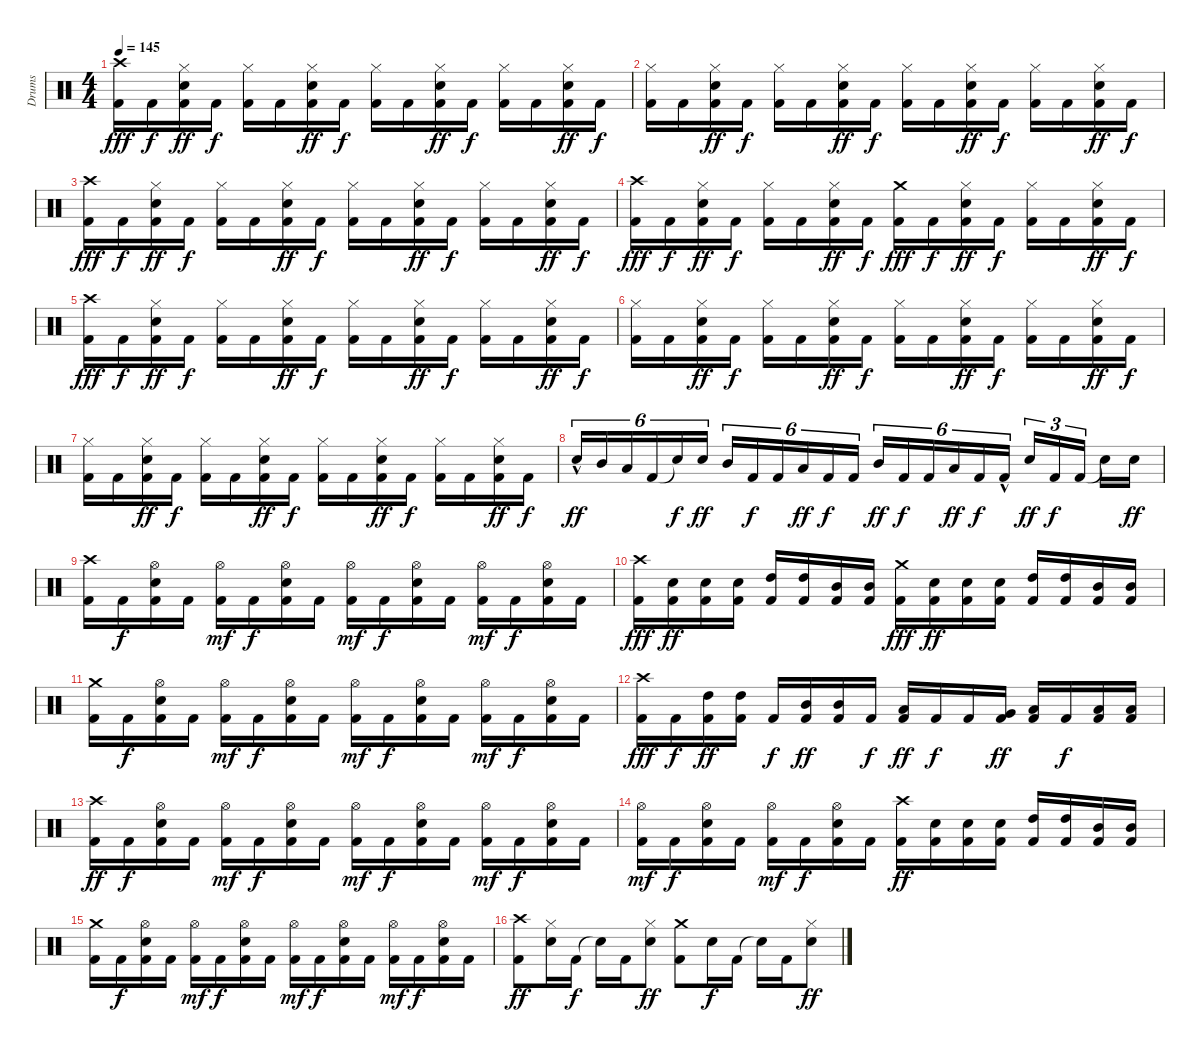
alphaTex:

\track ("Drums" "Drums") {instrument percussion}
\staff {score}
\articulation defaults
\ts (4 4)
\tempo 145
\clef neutral
\ks c
("Crash high (hit)" "Kick (hit) 2").16{dy fff} "Kick (hit) 2".16{dy f} ("Snare (hit) 2" "Hi-Hat (closed)" "Kick (hit) 2").16{dy ff} "Kick (hit) 2".16{dy f} ("Hi-Hat (closed)" "Kick (hit) 2").16 "Kick (hit) 2".16 ("Snare (hit) 2" "Hi-Hat (closed)" "Kick (hit) 2").16{dy ff} "Kick (hit) 2".16{dy f} ("Hi-Hat (closed)" "Kick (hit) 2").16 "Kick (hit) 2".16 ("Snare (hit) 2" "Hi-Hat (closed)" "Kick (hit) 2").16{dy ff} "Kick (hit) 2".16{dy f} ("Hi-Hat (closed)" "Kick (hit) 2").16 "Kick (hit) 2".16 ("Snare (hit) 2" "Hi-Hat (closed)" "Kick (hit) 2").16{dy ff} "Kick (hit) 2".16{dy f} |
("Hi-Hat (closed)" "Kick (hit) 2").16 "Kick (hit) 2".16 ("Snare (hit) 2" "Hi-Hat (closed)" "Kick (hit) 2").16{dy ff} "Kick (hit) 2".16{dy f} ("Hi-Hat (closed)" "Kick (hit) 2").16 "Kick (hit) 2".16 ("Snare (hit) 2" "Hi-Hat (closed)" "Kick (hit) 2").16{dy ff} "Kick (hit) 2".16{dy f} ("Hi-Hat (closed)" "Kick (hit) 2").16 "Kick (hit) 2".16 ("Snare (hit) 2" "Hi-Hat (closed)" "Kick (hit) 2").16{dy ff} "Kick (hit) 2".16{dy f} ("Hi-Hat (closed)" "Kick (hit) 2").16 "Kick (hit) 2".16 ("Snare (hit) 2" "Hi-Hat (closed)" "Kick (hit) 2").16{dy ff} "Kick (hit) 2".16{dy f} |
("Crash high (hit)" "Kick (hit) 2").16{dy fff} "Kick (hit) 2".16{dy f} ("Snare (hit) 2" "Hi-Hat (closed)" "Kick (hit) 2").16{dy ff} "Kick (hit) 2".16{dy f} ("Hi-Hat (closed)" "Kick (hit) 2").16 "Kick (hit) 2".16 ("Snare (hit) 2" "Hi-Hat (closed)" "Kick (hit) 2").16{dy ff} "Kick (hit) 2".16{dy f} ("Hi-Hat (closed)" "Kick (hit) 2").16 "Kick (hit) 2".16 ("Snare (hit) 2" "Hi-Hat (closed)" "Kick (hit) 2").16{dy ff} "Kick (hit) 2".16{dy f} ("Hi-Hat (closed)" "Kick (hit) 2").16 "Kick (hit) 2".16 ("Snare (hit) 2" "Hi-Hat (closed)" "Kick (hit) 2").16{dy ff} "Kick (hit) 2".16{dy f} |
("Crash high (hit)" "Kick (hit) 2").16{dy fff} "Kick (hit) 2".16{dy f} ("Snare (hit) 2" "Hi-Hat (closed)" "Kick (hit) 2").16{dy ff} "Kick (hit) 2".16{dy f} ("Hi-Hat (closed)" "Kick (hit) 2").16 "Kick (hit) 2".16 ("Snare (hit) 2" "Hi-Hat (closed)" "Kick (hit) 2").16{dy ff} "Kick (hit) 2".16{dy f} ("Crash medium (hit)" "Kick (hit) 2").16{dy fff} "Kick (hit) 2".16{dy f} ("Snare (hit) 2" "Hi-Hat (closed)" "Kick (hit) 2").16{dy ff} "Kick (hit) 2".16{dy f} ("Hi-Hat (closed)" "Kick (hit) 2").16 "Kick (hit) 2".16 ("Snare (hit) 2" "Hi-Hat (closed)" "Kick (hit) 2").16{dy ff} "Kick (hit) 2".16{dy f} |
("Crash high (hit)" "Kick (hit) 2").16{dy fff} "Kick (hit) 2".16{dy f} ("Snare (hit) 2" "Hi-Hat (closed)" "Kick (hit) 2").16{dy ff} "Kick (hit) 2".16{dy f} ("Hi-Hat (closed)" "Kick (hit) 2").16 "Kick (hit) 2".16 ("Snare (hit) 2" "Hi-Hat (closed)" "Kick (hit) 2").16{dy ff} "Kick (hit) 2".16{dy f} ("Hi-Hat (closed)" "Kick (hit) 2").16 "Kick (hit) 2".16 ("Snare (hit) 2" "Hi-Hat (closed)" "Kick (hit) 2").16{dy ff} "Kick (hit) 2".16{dy f} ("Hi-Hat (closed)" "Kick (hit) 2").16 "Kick (hit) 2".16 ("Snare (hit) 2" "Hi-Hat (closed)" "Kick (hit) 2").16{dy ff} "Kick (hit) 2".16{dy f} |
("Hi-Hat (closed)" "Kick (hit) 2").16 "Kick (hit) 2".16 ("Snare (hit) 2" "Hi-Hat (closed)" "Kick (hit) 2").16{dy ff} "Kick (hit) 2".16{dy f} ("Hi-Hat (closed)" "Kick (hit) 2").16 "Kick (hit) 2".16 ("Snare (hit) 2" "Hi-Hat (closed)" "Kick (hit) 2").16{dy ff} "Kick (hit) 2".16{dy f} ("Hi-Hat (closed)" "Kick (hit) 2").16 "Kick (hit) 2".16 ("Snare (hit) 2" "Hi-Hat (closed)" "Kick (hit) 2").16{dy ff} "Kick (hit) 2".16{dy f} ("Hi-Hat (closed)" "Kick (hit) 2").16 "Kick (hit) 2".16 ("Snare (hit) 2" "Hi-Hat (closed)" "Kick (hit) 2").16{dy ff} "Kick (hit) 2".16{dy f} |
("Hi-Hat (closed)" "Kick (hit) 2").16 "Kick (hit) 2".16 ("Snare (hit) 2" "Hi-Hat (closed)" "Kick (hit) 2").16{dy ff} "Kick (hit) 2".16{dy f} ("Hi-Hat (closed)" "Kick (hit) 2").16 "Kick (hit) 2".16 ("Snare (hit) 2" "Hi-Hat (closed)" "Kick (hit) 2").16{dy ff} "Kick (hit) 2".16{dy f} ("Hi-Hat (closed)" "Kick (hit) 2").16 "Kick (hit) 2".16 ("Snare (hit) 2" "Hi-Hat (closed)" "Kick (hit) 2").16{dy ff} "Kick (hit) 2".16{dy f} ("Hi-Hat (closed)" "Kick (hit) 2").16 "Kick (hit) 2".16 ("Snare (hit) 2" "Hi-Hat (closed)" "Kick (hit) 2").16{dy ff} "Kick (hit) 2".16{dy f} |
"Snare (hit) 2"{hac}.16{tu (6 4) dy ff} "Mid Tom (hit)".16{tu (6 4)} "Low Tom (hit)".16{tu (6 4)} "Kick (hit) 2".16{tu (6 4)} "Snare (hit)"{t}.16{tu (6 4) dy f} "Snare (hit) 2".16{tu (6 4) dy ff} "Mid Tom (hit)".16{tu (6 4)} "Kick (hit) 2".16{tu (6 4) dy f} "Kick (hit) 2".16{tu (6 4)} "Low Tom (hit)".16{tu (6 4) dy ff} "Kick (hit) 2".16{tu (6 4) dy f} "Kick (hit) 2".16{tu (6 4)} "Mid Tom (hit)".16{tu (6 4) dy ff} "Kick (hit) 2".16{tu (6 4) dy f} "Kick (hit) 2".16{tu (6 4)} "Low Tom (hit)".16{tu (6 4) dy ff} "Kick (hit) 2".16{tu (6 4) dy f} "Kick (hit) 2"{hac}.16{tu (6 4)} "Snare (hit) 2".16{tu (3 2) dy ff} "Kick (hit) 2".16{tu (3 2) dy f} "Kick (hit) 2".16{tu (3 2)} "Snare (hit)"{t}.16 "Snare (hit) 2".16{dy ff} |
("Crash high (hit)" "Kick (hit) 2").16 "Kick (hit) 2".16{dy f} ("Snare (hit) 2" "Hi-Hat (open)" "Kick (hit) 2").16 "Kick (hit) 2".16 ("Hi-Hat (open)" "Kick (hit) 2").16{dy mf} "Kick (hit) 2".16{dy f} ("Snare (hit) 2" "Hi-Hat (open)" "Kick (hit) 2").16 "Kick (hit) 2".16 ("Hi-Hat (open)" "Kick (hit) 2").16{dy mf} "Kick (hit) 2".16{dy f} ("Snare (hit) 2" "Hi-Hat (open)" "Kick (hit) 2").16 "Kick (hit) 2".16 ("Hi-Hat (open)" "Kick (hit) 2").16{dy mf} "Kick (hit) 2".16{dy f} ("Snare (hit) 2" "Hi-Hat (open)" "Kick (hit) 2").16 "Kick (hit) 2".16 |
("Crash high (hit)" "Kick (hit) 2").16{dy fff} ("Snare (hit) 2" "Kick (hit) 2").16{dy ff} ("Snare (hit) 2" "Kick (hit) 2").16 ("Snare (hit) 2" "Kick (hit) 2").16 ("High Tom (hit)" "Kick (hit) 2").16 ("High Tom (hit)" "Kick (hit) 2").16 ("Mid Tom (hit)" "Kick (hit) 2").16 ("Mid Tom (hit)" "Kick (hit) 2").16 ("Crash medium (hit)" "Kick (hit) 2").16{dy fff} ("Snare (hit) 2" "Kick (hit) 2").16{dy ff} ("Snare (hit) 2" "Kick (hit) 2").16 ("Snare (hit) 2" "Kick (hit) 2").16 ("High Tom (hit)" "Kick (hit) 2").16 ("High Tom (hit)" "Kick (hit) 2").16 ("Mid Tom (hit)" "Kick (hit) 2").16 ("Mid Tom (hit)" "Kick (hit) 2").16 |
("Crash medium (hit)" "Kick (hit) 2").16 "Kick (hit) 2".16{dy f} ("Snare (hit) 2" "Hi-Hat (open)" "Kick (hit) 2").16 "Kick (hit) 2".16 ("Hi-Hat (open)" "Kick (hit) 2").16{dy mf} "Kick (hit) 2".16{dy f} ("Snare (hit) 2" "Hi-Hat (open)" "Kick (hit) 2").16 "Kick (hit) 2".16 ("Hi-Hat (open)" "Kick (hit) 2").16{dy mf} "Kick (hit) 2".16{dy f} ("Snare (hit) 2" "Hi-Hat (open)" "Kick (hit) 2").16 "Kick (hit) 2".16 ("Hi-Hat (open)" "Kick (hit) 2").16{dy mf} "Kick (hit) 2".16{dy f} ("Snare (hit) 2" "Hi-Hat (open)" "Kick (hit) 2").16 "Kick (hit) 2".16 |
("Crash high (hit)" "Kick (hit) 2").16{dy fff} "Kick (hit) 2".16{dy f} ("High Tom (hit)" "Kick (hit) 2").16{dy ff} ("High Tom (hit)" "Kick (hit) 2").16 "Kick (hit) 2".16{dy f} ("Mid Tom (hit)" "Kick (hit) 2").16{dy ff} ("Mid Tom (hit)" "Kick (hit) 2").16 "Kick (hit) 2".16{dy f} ("Low Tom (hit)" "Kick (hit) 2").16{dy ff} "Kick (hit) 2".16{dy f} "Kick (hit) 2".16 ("Very Low Tom (hit)" "Kick (hit) 2").16{dy ff} ("Low Floor Tom (hit)" "Kick (hit) 2").16 "Kick (hit) 2".16{dy f} ("Low Floor Tom (hit)" "Kick (hit) 2").16 ("Low Floor Tom (hit)" "Kick (hit) 2").16 |
("Crash high (hit)" "Kick (hit) 2").16{dy ff} "Kick (hit) 2".16{dy f} ("Snare (hit) 2" "Hi-Hat (open)" "Kick (hit) 2").16 "Kick (hit) 2".16 ("Hi-Hat (open)" "Kick (hit) 2").16{dy mf} "Kick (hit) 2".16{dy f} ("Snare (hit) 2" "Hi-Hat (open)" "Kick (hit) 2").16 "Kick (hit) 2".16 ("Hi-Hat (open)" "Kick (hit) 2").16{dy mf} "Kick (hit) 2".16{dy f} ("Snare (hit) 2" "Hi-Hat (open)" "Kick (hit) 2").16 "Kick (hit) 2".16 ("Hi-Hat (open)" "Kick (hit) 2").16{dy mf} "Kick (hit) 2".16{dy f} ("Snare (hit) 2" "Hi-Hat (open)" "Kick (hit) 2").16 "Kick (hit) 2".16 |
("Hi-Hat (open)" "Kick (hit) 2").16{dy mf} "Kick (hit) 2".16{dy f} ("Snare (hit) 2" "Hi-Hat (open)" "Kick (hit) 2").16 "Kick (hit) 2".16 ("Hi-Hat (open)" "Kick (hit) 2").16{dy mf} "Kick (hit) 2".16{dy f} ("Snare (hit) 2" "Hi-Hat (open)" "Kick (hit) 2").16 "Kick (hit) 2".16 ("Crash high (hit)" "Kick (hit) 2").16{dy ff} ("Snare (hit) 2" "Kick (hit) 2").16 ("Snare (hit) 2" "Kick (hit) 2").16 ("Snare (hit) 2" "Kick (hit) 2").16 ("High Tom (hit)" "Kick (hit) 2").16 ("High Tom (hit)" "Kick (hit) 2").16 ("Mid Tom (hit)" "Kick (hit) 2").16 ("Mid Tom (hit)" "Kick (hit) 2").16 |
("Crash medium (hit)" "Kick (hit) 2").16 "Kick (hit) 2".16{dy f} ("Snare (hit) 2" "Hi-Hat (open)" "Kick (hit) 2").16 "Kick (hit) 2".16 ("Hi-Hat (open)" "Kick (hit) 2").16{dy mf} "Kick (hit) 2".16{dy f} ("Snare (hit) 2" "Hi-Hat (open)" "Kick (hit) 2").16 "Kick (hit) 2".16 ("Hi-Hat (open)" "Kick (hit) 2").16{dy mf} "Kick (hit) 2".16{dy f} ("Snare (hit) 2" "Hi-Hat (open)" "Kick (hit) 2").16 "Kick (hit) 2".16 ("Hi-Hat (open)" "Kick (hit) 2").16{dy mf} "Kick (hit) 2".16{dy f} ("Snare (hit) 2" "Hi-Hat (open)" "Kick (hit) 2").16 "Kick (hit) 2".16 |
("Kick (hit) 2" "Crash high (hit)").8{dy ff} ("Snare (hit) 2" "Hi-Hat (closed)").16 "Kick (hit) 2".16{dy f} "Snare (hit)"{t}.16 "Kick (hit) 2".16 ("Snare (hit) 2" "Hi-Hat (closed)").8{dy ff} ("Kick (hit) 2" "Crash medium (hit)").8 "Snare (hit) 2".16{dy f} "Kick (hit) 2".16 "Snare (hit)"{t}.16 "Kick (hit) 2".16 ("Snare (hit) 2" "Hi-Hat (closed)").8{dy ff}
